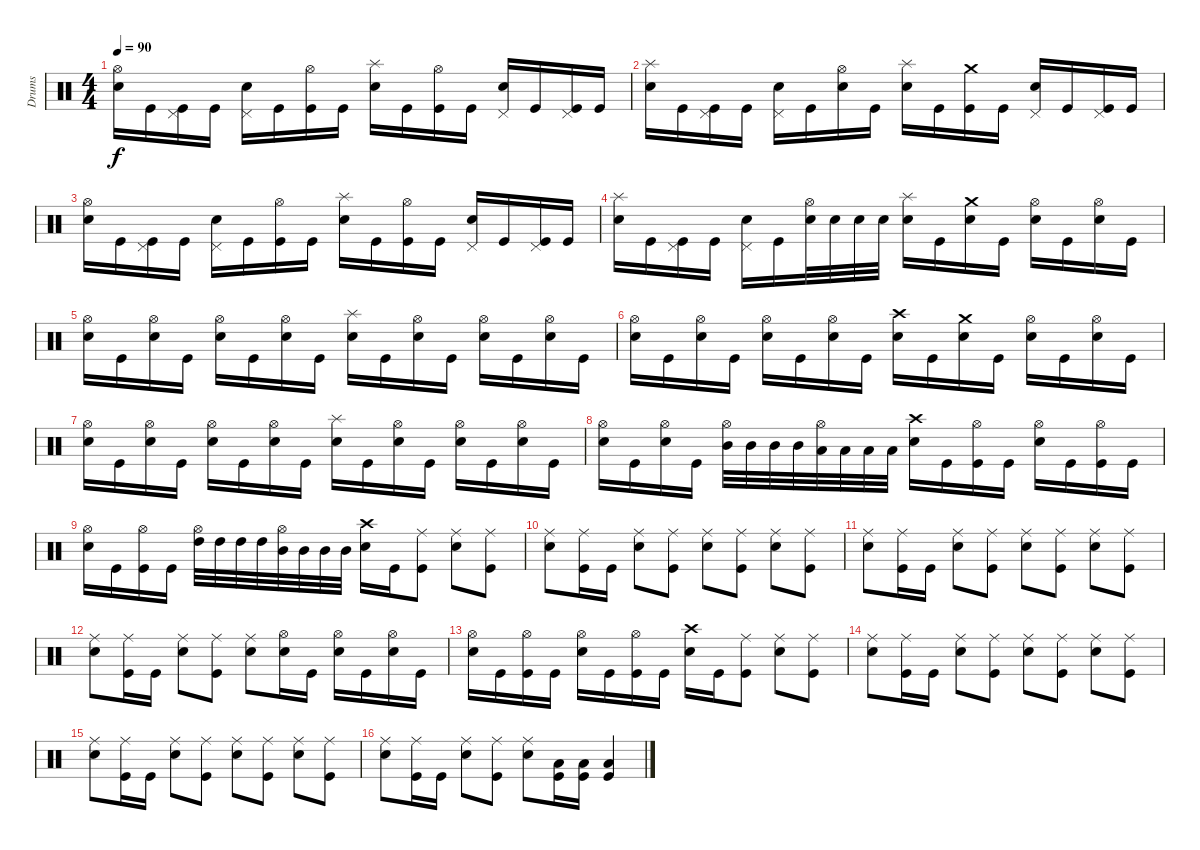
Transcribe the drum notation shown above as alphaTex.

\track ("Drums" "Drums") {instrument percussion}
\staff {score}
\articulation defaults
\ts (4 4)
\tempo 90
\clef neutral
\ks c
("Hi-Hat (open)" "Electric Snare (hit)").16{dy f} "Kick (hit)".16 ("Pedal Hi-Hat (hit)" "Kick (hit)").16 "Kick (hit)".16 ("Pedal Hi-Hat (hit)" "Electric Snare (hit)").16 "Kick (hit)".16 ("Hi-Hat (open)" "Kick (hit)").16 "Kick (hit)".16 ("Splash (hit)" "Electric Snare (hit)").16 "Kick (hit)".16 ("Hi-Hat (open)" "Kick (hit)").16 "Kick (hit)".16 ("Pedal Hi-Hat (hit)" "Electric Snare (hit)").16 "Kick (hit)".16 ("Pedal Hi-Hat (hit)" "Kick (hit)").16 "Kick (hit)".16 |
("Splash (hit)" "Electric Snare (hit)").16 "Kick (hit)".16 ("Pedal Hi-Hat (hit)" "Kick (hit)").16 "Kick (hit)".16 ("Pedal Hi-Hat (hit)" "Electric Snare (hit)").16 "Kick (hit)".16 ("Hi-Hat (open)" "Electric Snare (hit)").16 "Kick (hit)".16 ("Splash (hit)" "Electric Snare (hit)").16 "Kick (hit)".16 ("Crash medium (hit)" "Kick (hit)").16 "Kick (hit)".16 ("Pedal Hi-Hat (hit)" "Electric Snare (hit)").16 "Kick (hit)".16 ("Pedal Hi-Hat (hit)" "Kick (hit)").16 "Kick (hit)".16 |
("Hi-Hat (open)" "Electric Snare (hit)").16 "Kick (hit)".16 ("Pedal Hi-Hat (hit)" "Kick (hit)").16 "Kick (hit)".16 ("Pedal Hi-Hat (hit)" "Electric Snare (hit)").16 "Kick (hit)".16 ("Hi-Hat (open)" "Kick (hit)").16 "Kick (hit)".16 ("Splash (hit)" "Electric Snare (hit)").16 "Kick (hit)".16 ("Hi-Hat (open)" "Kick (hit)").16 "Kick (hit)".16 ("Pedal Hi-Hat (hit)" "Electric Snare (hit)").16 "Kick (hit)".16 ("Pedal Hi-Hat (hit)" "Kick (hit)").16 "Kick (hit)".16 |
("Splash (hit)" "Electric Snare (hit)").16 "Kick (hit)".16 ("Pedal Hi-Hat (hit)" "Kick (hit)").16 "Kick (hit)".16 ("Pedal Hi-Hat (hit)" "Electric Snare (hit)").16 "Kick (hit)".16 ("Hi-Hat (open)" "Electric Snare (hit)").32 "Electric Snare (hit)".32 "Electric Snare (hit)".32 "Electric Snare (hit)".32 ("Splash (hit)" "Electric Snare (hit)").16 "Kick (hit)".16 ("Crash medium (hit)" "Electric Snare (hit)").16 "Kick (hit)".16 ("Hi-Hat (open)" "Electric Snare (hit)").16 "Kick (hit)".16 ("Hi-Hat (open)" "Electric Snare (hit)").16 "Kick (hit)".16 |
("Hi-Hat (open)" "Electric Snare (hit)").16 "Kick (hit)".16 ("Hi-Hat (open)" "Electric Snare (hit)").16 "Kick (hit)".16 ("Hi-Hat (open)" "Electric Snare (hit)").16 "Kick (hit)".16 ("Hi-Hat (open)" "Electric Snare (hit)").16 "Kick (hit)".16 ("Splash (hit)" "Electric Snare (hit)").16 "Kick (hit)".16 ("Hi-Hat (open)" "Electric Snare (hit)").16 "Kick (hit)".16 ("Hi-Hat (open)" "Electric Snare (hit)").16 "Kick (hit)".16 ("Hi-Hat (open)" "Electric Snare (hit)").16 "Kick (hit)".16 |
("Hi-Hat (open)" "Electric Snare (hit)").16 "Kick (hit)".16 ("Hi-Hat (open)" "Electric Snare (hit)").16 "Kick (hit)".16 ("Hi-Hat (open)" "Electric Snare (hit)").16 "Kick (hit)".16 ("Hi-Hat (open)" "Electric Snare (hit)").16 "Kick (hit)".16 ("Crash high (hit)" "Electric Snare (hit)").16 "Kick (hit)".16 ("Crash medium (hit)" "Electric Snare (hit)").16 "Kick (hit)".16 ("Hi-Hat (open)" "Electric Snare (hit)").16 "Kick (hit)".16 ("Hi-Hat (open)" "Electric Snare (hit)").16 "Kick (hit)".16 |
("Hi-Hat (open)" "Electric Snare (hit)").16 "Kick (hit)".16 ("Hi-Hat (open)" "Electric Snare (hit)").16 "Kick (hit)".16 ("Hi-Hat (open)" "Electric Snare (hit)").16 "Kick (hit)".16 ("Hi-Hat (open)" "Electric Snare (hit)").16 "Kick (hit)".16 ("Splash (hit)" "Electric Snare (hit)").16 "Kick (hit)".16 ("Hi-Hat (open)" "Electric Snare (hit)").16 "Kick (hit)".16 ("Hi-Hat (open)" "Electric Snare (hit)").16 "Kick (hit)".16 ("Hi-Hat (open)" "Electric Snare (hit)").16 "Kick (hit)".16 |
("Hi-Hat (open)" "Electric Snare (hit)").16 "Kick (hit)".16 ("Hi-Hat (open)" "Electric Snare (hit)").16 "Kick (hit)".16 ("Hi-Hat (open)" "Mid Tom (hit)").32 "Mid Tom (hit)".32 "Mid Tom (hit)".32 "Mid Tom (hit)".32 ("Hi-Hat (open)" "Low Tom (hit)").32 "Low Tom (hit)".32 "Low Tom (hit)".32 "Low Tom (hit)".32 ("Crash high (hit)" "Electric Snare (hit)").16 "Kick (hit)".16 ("Hi-Hat (open)" "Kick (hit)").16 "Kick (hit)".16 ("Hi-Hat (open)" "Electric Snare (hit)").16 "Kick (hit)".16 ("Hi-Hat (open)" "Kick (hit)").16 "Kick (hit)".16 |
("Hi-Hat (open)" "Electric Snare (hit)").16 "Kick (hit)".16 ("Hi-Hat (open)" "Kick (hit)").16 "Kick (hit)".16 ("Hi-Hat (open)" "High Tom (hit)").32 "High Tom (hit)".32 "High Tom (hit)".32 "High Tom (hit)".32 ("Hi-Hat (open)" "Mid Tom (hit)").32 "Mid Tom (hit)".32 "Mid Tom (hit)".32 "Mid Tom (hit)".32 ("Crash high (hit)" "Electric Snare (hit)").16 "Kick (hit)".16 ("Ride (middle)" "Kick (hit)").8 ("Ride (middle)" "Electric Snare (hit)").8 ("Ride (middle)" "Kick (hit)").8 |
("Ride (middle)" "Electric Snare (hit)").8 ("Ride (middle)" "Kick (hit)").16 "Kick (hit)".16 ("Ride (middle)" "Electric Snare (hit)").8 ("Ride (middle)" "Kick (hit)").8 ("Ride (middle)" "Electric Snare (hit)").8 ("Ride (middle)" "Kick (hit)").8 ("Ride (middle)" "Electric Snare (hit)").8 ("Ride (middle)" "Kick (hit)").8 |
("Ride (middle)" "Electric Snare (hit)").8 ("Ride (middle)" "Kick (hit)").16 "Kick (hit)".16 ("Ride (middle)" "Electric Snare (hit)").8 ("Ride (middle)" "Kick (hit)").8 ("Ride (middle)" "Electric Snare (hit)").8 ("Ride (middle)" "Kick (hit)").8 ("Ride (middle)" "Electric Snare (hit)").8 ("Ride (middle)" "Kick (hit)").8 |
("Ride (middle)" "Electric Snare (hit)").8 ("Ride (middle)" "Kick (hit)").16 "Kick (hit)".16 ("Ride (middle)" "Electric Snare (hit)").8 ("Ride (middle)" "Kick (hit)").8 ("Ride (middle)" "Electric Snare (hit)").8 ("Hi-Hat (open)" "Electric Snare (hit)").16 "Kick (hit)".16 ("Hi-Hat (open)" "Electric Snare (hit)").16 "Kick (hit)".16 ("Hi-Hat (open)" "Electric Snare (hit)").16 "Kick (hit)".16 |
("Hi-Hat (open)" "Electric Snare (hit)").16 "Kick (hit)".16 ("Hi-Hat (open)" "Kick (hit)").16 "Kick (hit)".16 ("Hi-Hat (open)" "Electric Snare (hit)").16 "Kick (hit)".16 ("Hi-Hat (open)" "Kick (hit)").16 "Kick (hit)".16 ("Crash high (hit)" "Electric Snare (hit)").16 "Kick (hit)".16 ("Ride (middle)" "Kick (hit)").8 ("Ride (middle)" "Electric Snare (hit)").8 ("Ride (middle)" "Kick (hit)").8 |
("Ride (middle)" "Electric Snare (hit)").8 ("Ride (middle)" "Kick (hit)").16 "Kick (hit)".16 ("Ride (middle)" "Electric Snare (hit)").8 ("Ride (middle)" "Kick (hit)").8 ("Ride (middle)" "Electric Snare (hit)").8 ("Ride (middle)" "Kick (hit)").8 ("Ride (middle)" "Electric Snare (hit)").8 ("Ride (middle)" "Kick (hit)").8 |
("Ride (middle)" "Electric Snare (hit)").8 ("Ride (middle)" "Kick (hit)").16 "Kick (hit)".16 ("Ride (middle)" "Electric Snare (hit)").8 ("Ride (middle)" "Kick (hit)").8 ("Ride (middle)" "Electric Snare (hit)").8 ("Ride (middle)" "Kick (hit)").8 ("Ride (middle)" "Electric Snare (hit)").8 ("Ride (middle)" "Kick (hit)").8 |
("Ride (middle)" "Electric Snare (hit)").8 ("Ride (middle)" "Kick (hit)").16 "Kick (hit)".16 ("Ride (middle)" "Electric Snare (hit)").8 ("Ride (middle)" "Kick (hit)").8 ("Ride (middle)" "Electric Snare (hit)").8 ("Low Tom (hit)" "Kick (hit)").16 ("Low Tom (hit)" "Kick (hit)").16 ("Low Tom (hit)" "Kick (hit)").4
